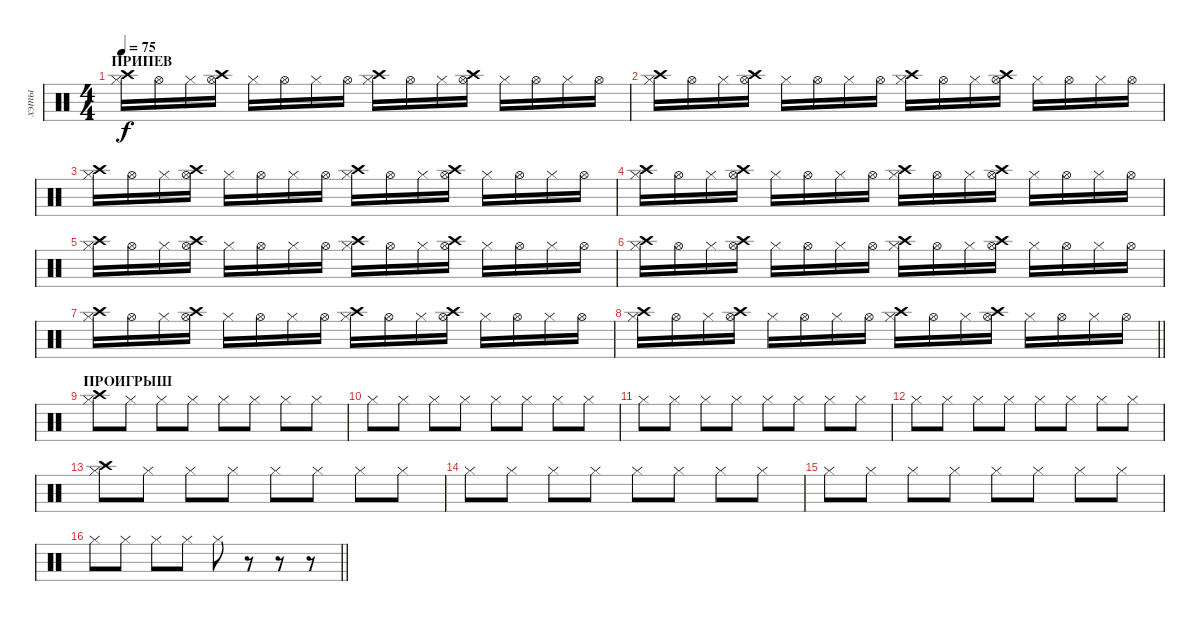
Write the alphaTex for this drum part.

\track ("хэты" "хэты") {instrument percussion}
\staff {score}
\articulation defaults
\ts (4 4)
\section ("" "ПРИПЕВ")
\tempo 75
\clef neutral
\ks c
("Crash high (hit)" "Hi-Hat (closed)").16{dy f} "Hi-Hat (open)".16 "Hi-Hat (closed)".16 ("Hi-Hat (open)" "Crash high (hit)").16 "Hi-Hat (closed)".16 "Hi-Hat (open)".16 "Hi-Hat (closed)".16 "Hi-Hat (open)".16 ("Crash high (hit)" "Hi-Hat (closed)").16 "Hi-Hat (open)".16 "Hi-Hat (closed)".16 ("Hi-Hat (open)" "Crash high (hit)").16 "Hi-Hat (closed)".16 "Hi-Hat (open)".16 "Hi-Hat (closed)".16 "Hi-Hat (open)".16 |
("Crash high (hit)" "Hi-Hat (closed)").16 "Hi-Hat (open)".16 "Hi-Hat (closed)".16 ("Hi-Hat (open)" "Crash high (hit)").16 "Hi-Hat (closed)".16 "Hi-Hat (open)".16 "Hi-Hat (closed)".16 "Hi-Hat (open)".16 ("Crash high (hit)" "Hi-Hat (closed)").16 "Hi-Hat (open)".16 "Hi-Hat (closed)".16 ("Hi-Hat (open)" "Crash high (hit)").16 "Hi-Hat (closed)".16 "Hi-Hat (open)".16 "Hi-Hat (closed)".16 "Hi-Hat (open)".16 |
("Crash high (hit)" "Hi-Hat (closed)").16 "Hi-Hat (open)".16 "Hi-Hat (closed)".16 ("Hi-Hat (open)" "Crash high (hit)").16 "Hi-Hat (closed)".16 "Hi-Hat (open)".16 "Hi-Hat (closed)".16 "Hi-Hat (open)".16 ("Crash high (hit)" "Hi-Hat (closed)").16 "Hi-Hat (open)".16 "Hi-Hat (closed)".16 ("Hi-Hat (open)" "Crash high (hit)").16 "Hi-Hat (closed)".16 "Hi-Hat (open)".16 "Hi-Hat (closed)".16 "Hi-Hat (open)".16 |
("Crash high (hit)" "Hi-Hat (closed)").16 "Hi-Hat (open)".16 "Hi-Hat (closed)".16 ("Hi-Hat (open)" "Crash high (hit)").16 "Hi-Hat (closed)".16 "Hi-Hat (open)".16 "Hi-Hat (closed)".16 "Hi-Hat (open)".16 ("Crash high (hit)" "Hi-Hat (closed)").16 "Hi-Hat (open)".16 "Hi-Hat (closed)".16 ("Hi-Hat (open)" "Crash high (hit)").16 "Hi-Hat (closed)".16 "Hi-Hat (open)".16 "Hi-Hat (closed)".16 "Hi-Hat (open)".16 |
("Crash high (hit)" "Hi-Hat (closed)").16 "Hi-Hat (open)".16 "Hi-Hat (closed)".16 ("Hi-Hat (open)" "Crash high (hit)").16 "Hi-Hat (closed)".16 "Hi-Hat (open)".16 "Hi-Hat (closed)".16 "Hi-Hat (open)".16 ("Crash high (hit)" "Hi-Hat (closed)").16 "Hi-Hat (open)".16 "Hi-Hat (closed)".16 ("Hi-Hat (open)" "Crash high (hit)").16 "Hi-Hat (closed)".16 "Hi-Hat (open)".16 "Hi-Hat (closed)".16 "Hi-Hat (open)".16 |
("Crash high (hit)" "Hi-Hat (closed)").16 "Hi-Hat (open)".16 "Hi-Hat (closed)".16 ("Hi-Hat (open)" "Crash high (hit)").16 "Hi-Hat (closed)".16 "Hi-Hat (open)".16 "Hi-Hat (closed)".16 "Hi-Hat (open)".16 ("Crash high (hit)" "Hi-Hat (closed)").16 "Hi-Hat (open)".16 "Hi-Hat (closed)".16 ("Hi-Hat (open)" "Crash high (hit)").16 "Hi-Hat (closed)".16 "Hi-Hat (open)".16 "Hi-Hat (closed)".16 "Hi-Hat (open)".16 |
("Crash high (hit)" "Hi-Hat (closed)").16 "Hi-Hat (open)".16 "Hi-Hat (closed)".16 ("Hi-Hat (open)" "Crash high (hit)").16 "Hi-Hat (closed)".16 "Hi-Hat (open)".16 "Hi-Hat (closed)".16 "Hi-Hat (open)".16 ("Crash high (hit)" "Hi-Hat (closed)").16 "Hi-Hat (open)".16 "Hi-Hat (closed)".16 ("Hi-Hat (open)" "Crash high (hit)").16 "Hi-Hat (closed)".16 "Hi-Hat (open)".16 "Hi-Hat (closed)".16 "Hi-Hat (open)".16 |
\barLineRight lightlight
("Crash high (hit)" "Hi-Hat (closed)").16 "Hi-Hat (open)".16 "Hi-Hat (closed)".16 ("Hi-Hat (open)" "Crash high (hit)").16 "Hi-Hat (closed)".16 "Hi-Hat (open)".16 "Hi-Hat (closed)".16 "Hi-Hat (open)".16 ("Crash high (hit)" "Hi-Hat (closed)").16 "Hi-Hat (open)".16 "Hi-Hat (closed)".16 ("Hi-Hat (open)" "Crash high (hit)").16 "Hi-Hat (closed)".16 "Hi-Hat (open)".16 "Hi-Hat (closed)".16 "Hi-Hat (open)".16 |
\section ("" "ПРОИГРЫШ")
("Crash high (hit)" "Hi-Hat (closed)").8 "Hi-Hat (closed)".8 "Hi-Hat (closed)".8 "Hi-Hat (closed)".8 "Hi-Hat (closed)".8 "Hi-Hat (closed)".8 "Hi-Hat (closed)".8 "Hi-Hat (closed)".8 |
"Hi-Hat (closed)".8 "Hi-Hat (closed)".8 "Hi-Hat (closed)".8 "Hi-Hat (closed)".8 "Hi-Hat (closed)".8 "Hi-Hat (closed)".8 "Hi-Hat (closed)".8 "Hi-Hat (closed)".8 |
"Hi-Hat (closed)".8 "Hi-Hat (closed)".8 "Hi-Hat (closed)".8 "Hi-Hat (closed)".8 "Hi-Hat (closed)".8 "Hi-Hat (closed)".8 "Hi-Hat (closed)".8 "Hi-Hat (closed)".8 |
"Hi-Hat (closed)".8 "Hi-Hat (closed)".8 "Hi-Hat (closed)".8 "Hi-Hat (closed)".8 "Hi-Hat (closed)".8 "Hi-Hat (closed)".8 "Hi-Hat (closed)".8 "Hi-Hat (closed)".8 |
("Crash high (hit)" "Hi-Hat (closed)").8 "Hi-Hat (closed)".8 "Hi-Hat (closed)".8 "Hi-Hat (closed)".8 "Hi-Hat (closed)".8 "Hi-Hat (closed)".8 "Hi-Hat (closed)".8 "Hi-Hat (closed)".8 |
"Hi-Hat (closed)".8 "Hi-Hat (closed)".8 "Hi-Hat (closed)".8 "Hi-Hat (closed)".8 "Hi-Hat (closed)".8 "Hi-Hat (closed)".8 "Hi-Hat (closed)".8 "Hi-Hat (closed)".8 |
"Hi-Hat (closed)".8 "Hi-Hat (closed)".8 "Hi-Hat (closed)".8 "Hi-Hat (closed)".8 "Hi-Hat (closed)".8 "Hi-Hat (closed)".8 "Hi-Hat (closed)".8 "Hi-Hat (closed)".8 |
\barLineRight lightlight "Hi-Hat (closed)".8 "Hi-Hat (closed)".8 "Hi-Hat (closed)".8 "Hi-Hat (closed)".8 "Hi-Hat (closed)".8
r.8 r.8 r.8
